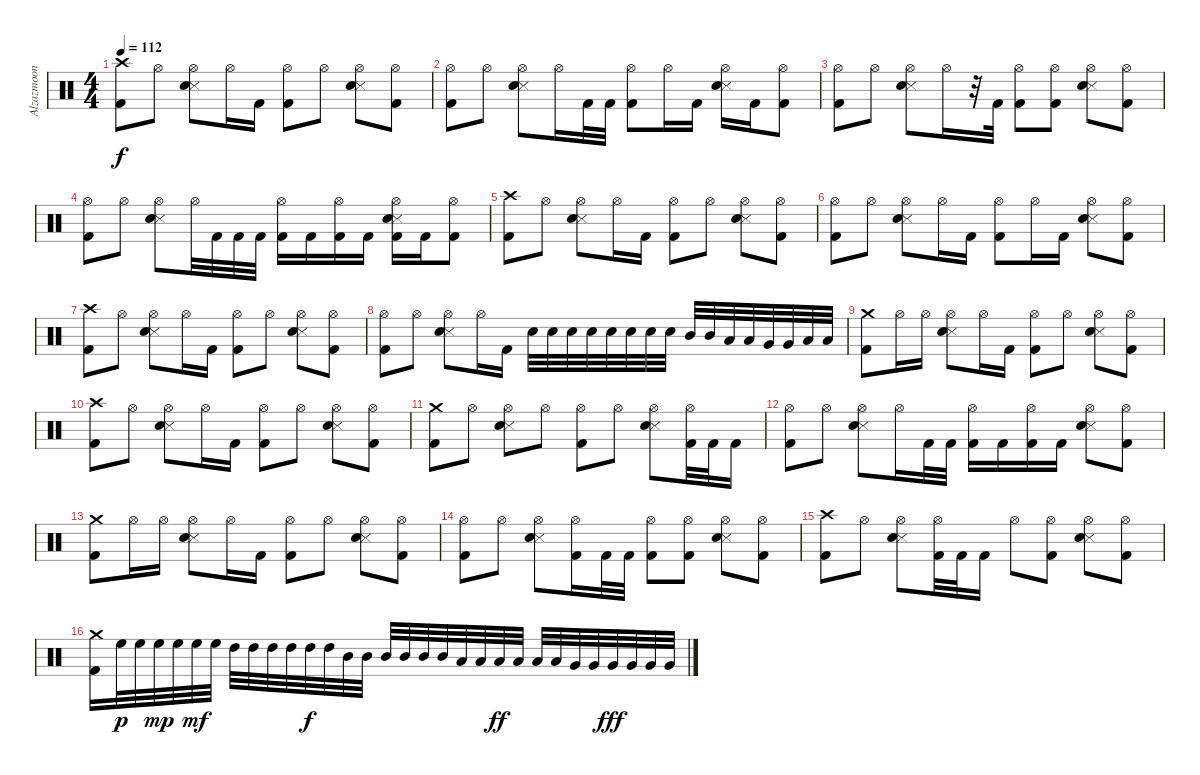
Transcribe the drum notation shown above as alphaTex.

\track ("Alzazmoon" "Alzazmoon") {instrument percussion}
\staff {score}
\articulation defaults
\ts (4 4)
\tempo 112
\clef neutral
\ks c
("Crash high (hit)" "Kick (hit) 2").8{dy f} "Hi-Hat (open)".8 ("Hi-Hat (open)" "Snare (side stick) 3" "Snare (hit) 2").8 "Hi-Hat (open)".16 "Kick (hit) 2".16 ("Hi-Hat (open)" "Kick (hit) 2").8 "Hi-Hat (open)".8 ("Hi-Hat (open)" "Snare (side stick) 3" "Snare (hit) 2").8 ("Hi-Hat (open)" "Kick (hit) 2").8 |
("Hi-Hat (open)" "Kick (hit) 2").8 "Hi-Hat (open)".8 ("Hi-Hat (open)" "Snare (side stick) 3" "Snare (hit) 2").8 "Hi-Hat (open)".16 "Kick (hit) 2".32 "Kick (hit) 2".32 ("Hi-Hat (open)" "Kick (hit) 2").8 "Hi-Hat (open)".16 "Kick (hit) 2".16 ("Hi-Hat (open)" "Snare (side stick) 3" "Snare (hit) 2").16 "Kick (hit) 2".16 ("Hi-Hat (open)" "Kick (hit) 2").8 |
("Hi-Hat (open)" "Kick (hit) 2").8 "Hi-Hat (open)".8 ("Hi-Hat (open)" "Snare (side stick) 3" "Snare (hit) 2").8 "Hi-Hat (open)".16 r.32 "Kick (hit) 2".32 ("Hi-Hat (open)" "Kick (hit) 2").8 ("Hi-Hat (open)" "Kick (hit) 2").8 ("Hi-Hat (open)" "Snare (side stick) 3" "Snare (hit) 2").8 ("Hi-Hat (open)" "Kick (hit) 2").8 |
("Hi-Hat (open)" "Kick (hit) 2").8 "Hi-Hat (open)".8 ("Hi-Hat (open)" "Snare (side stick) 3" "Snare (hit) 2").8 "Hi-Hat (open)".32 "Kick (hit) 2".32 "Kick (hit) 2".32 "Kick (hit) 2".32 ("Hi-Hat (open)" "Kick (hit) 2").16 "Kick (hit) 2".16 ("Hi-Hat (open)" "Kick (hit) 2").16 "Kick (hit) 2".16 ("Hi-Hat (open)" "Snare (side stick) 3" "Snare (hit) 2" "Kick (hit) 2").16 "Kick (hit) 2".16 ("Hi-Hat (open)" "Kick (hit) 2").8 |
("Crash high (hit)" "Kick (hit) 2").8 "Hi-Hat (open)".8 ("Hi-Hat (open)" "Snare (side stick) 3" "Snare (hit) 2").8 "Hi-Hat (open)".16 "Kick (hit) 2".16 ("Hi-Hat (open)" "Kick (hit) 2").8 "Hi-Hat (open)".8 ("Hi-Hat (open)" "Snare (side stick) 3" "Snare (hit) 2").8 ("Hi-Hat (open)" "Kick (hit) 2").8 |
("Hi-Hat (open)" "Kick (hit) 2").8 "Hi-Hat (open)".8 ("Hi-Hat (open)" "Snare (side stick) 3" "Snare (hit) 2").8 "Hi-Hat (open)".16 "Kick (hit) 2".16 ("Hi-Hat (open)" "Kick (hit) 2").8 "Hi-Hat (open)".16 "Kick (hit) 2".16 ("Hi-Hat (open)" "Snare (side stick) 3" "Snare (hit) 2").8 ("Hi-Hat (open)" "Kick (hit) 2").8 |
("Crash high (hit)" "Kick (hit) 2").8 "Hi-Hat (open)".8 ("Hi-Hat (open)" "Snare (side stick) 3" "Snare (hit) 2").8 "Hi-Hat (open)".16 "Kick (hit) 2".16 ("Hi-Hat (open)" "Kick (hit) 2").8 "Hi-Hat (open)".8 ("Hi-Hat (open)" "Snare (side stick) 3" "Snare (hit) 2").8 ("Hi-Hat (open)" "Kick (hit) 2").8 |
("Hi-Hat (open)" "Kick (hit) 2").8 "Hi-Hat (open)".8 ("Hi-Hat (open)" "Snare (side stick) 3" "Snare (hit) 2").8 "Hi-Hat (open)".16 "Kick (hit) 2".16 "Snare (hit) 2".32 "Snare (hit) 2".32 "Snare (hit) 2".32 "Snare (hit) 2".32 "Snare (hit) 2".32 "Snare (hit) 2".32 "Snare (hit) 2".32 "Snare (hit) 2".32 "Mid Tom (hit)".32 "Mid Tom (hit)".32 "Low Tom (hit)".32 "Low Tom (hit)".32 "Very Low Tom (hit)".32 "Very Low Tom (hit)".32 "Low Floor Tom (hit)".32 "Low Floor Tom (hit)".32 |
("Crash medium (hit)" "Kick (hit) 2").8 "Hi-Hat (open)".16 "Hi-Hat (open)".16 ("Hi-Hat (open)" "Snare (side stick) 3" "Snare (hit) 2").8 "Hi-Hat (open)".16 "Kick (hit) 2".16 ("Hi-Hat (open)" "Kick (hit) 2").8 "Hi-Hat (open)".8 ("Hi-Hat (open)" "Snare (side stick) 3" "Snare (hit) 2").8 ("Hi-Hat (open)" "Kick (hit) 2").8 |
("Crash high (hit)" "Kick (hit) 2").8 "Hi-Hat (open)".8 ("Hi-Hat (open)" "Snare (side stick) 3" "Snare (hit) 2").8 "Hi-Hat (open)".16 "Kick (hit) 2".16 ("Hi-Hat (open)" "Kick (hit) 2").8 "Hi-Hat (open)".8 ("Hi-Hat (open)" "Snare (side stick) 3" "Snare (hit) 2").8 ("Hi-Hat (open)" "Kick (hit) 2").8 |
("Crash medium (hit)" "Kick (hit) 2").8 "Hi-Hat (open)".8 ("Hi-Hat (open)" "Snare (side stick) 3" "Snare (hit) 2").8 "Hi-Hat (open)".8 ("Hi-Hat (open)" "Kick (hit) 2").8 "Hi-Hat (open)".8 ("Hi-Hat (open)" "Snare (side stick) 3" "Snare (hit) 2").8 ("Hi-Hat (open)" "Kick (hit) 2").32 "Kick (hit) 2".32 "Kick (hit) 2".16 |
("Hi-Hat (open)" "Kick (hit) 2").8 "Hi-Hat (open)".8 ("Hi-Hat (open)" "Snare (side stick) 3" "Snare (hit) 2").8 "Hi-Hat (open)".16 "Kick (hit) 2".32 "Kick (hit) 2".32 ("Hi-Hat (open)" "Kick (hit) 2").16 "Kick (hit) 2".16 ("Hi-Hat (open)" "Kick (hit) 2").16 "Kick (hit) 2".16 ("Hi-Hat (open)" "Snare (side stick) 3" "Snare (hit) 2").8 ("Hi-Hat (open)" "Kick (hit) 2").8 |
("Crash medium (hit)" "Kick (hit) 2").8 "Hi-Hat (open)".16 "Hi-Hat (open)".16 ("Hi-Hat (open)" "Snare (side stick) 3" "Snare (hit) 2").8 "Hi-Hat (open)".16 "Kick (hit) 2".16 ("Hi-Hat (open)" "Kick (hit) 2").8 "Hi-Hat (open)".8 ("Hi-Hat (open)" "Snare (side stick) 3" "Snare (hit) 2").8 ("Hi-Hat (open)" "Kick (hit) 2").8 |
("Hi-Hat (open)" "Kick (hit) 2").8 "Hi-Hat (open)".8 ("Hi-Hat (open)" "Snare (side stick) 3" "Snare (hit) 2").8 ("Hi-Hat (open)" "Kick (hit) 2").16 "Kick (hit) 2".32 "Kick (hit) 2".32 ("Hi-Hat (open)" "Kick (hit) 2").8 ("Hi-Hat (open)" "Kick (hit) 2").8 ("Hi-Hat (open)" "Snare (side stick) 3" "Snare (hit) 2").8 ("Hi-Hat (open)" "Kick (hit) 2").8 |
("Crash high (hit)" "Kick (hit) 2").8 "Hi-Hat (open)".8 ("Hi-Hat (open)" "Snare (side stick) 3" "Snare (hit) 2").8 ("Hi-Hat (open)" "Kick (hit) 2").32 "Kick (hit) 2".32 "Kick (hit) 2".16 "Hi-Hat (open)".8 ("Hi-Hat (open)" "Kick (hit) 2").8 ("Hi-Hat (open)" "Snare (side stick) 3" "Snare (hit) 2").8 ("Hi-Hat (open)" "Kick (hit) 2").8 |
("Crash medium (hit)" "Kick (hit) 2").16 "High Floor Tom (hit)".32{dy p} "High Floor Tom (hit)".32 "High Floor Tom (hit)".32{dy mp} "High Floor Tom (hit)".32 "High Floor Tom (hit)".32{dy mf} "High Floor Tom (hit)".32 "High Tom (hit)".32 "High Tom (hit)".32 "High Tom (hit)".32 "High Tom (hit)".32 "High Tom (hit)".32{dy f} "High Tom (hit)".32 "Mid Tom (hit)".32 "Mid Tom (hit)".32 "Mid Tom (hit)".32 "Mid Tom (hit)".32 "Mid Tom (hit)".32 "Mid Tom (hit)".32 "Low Tom (hit)".32 "Low Tom (hit)".32 "Low Tom (hit)".32{dy ff} "Low Tom (hit)".32 "Low Tom (hit)".32 "Low Tom (hit)".32 "Very Low Tom (hit)".32 "Very Low Tom (hit)".32 "Very Low Tom (hit)".32{dy fff} "Very Low Tom (hit)".32 "Very Low Tom (hit)".32 "Very Low Tom (hit)".32
